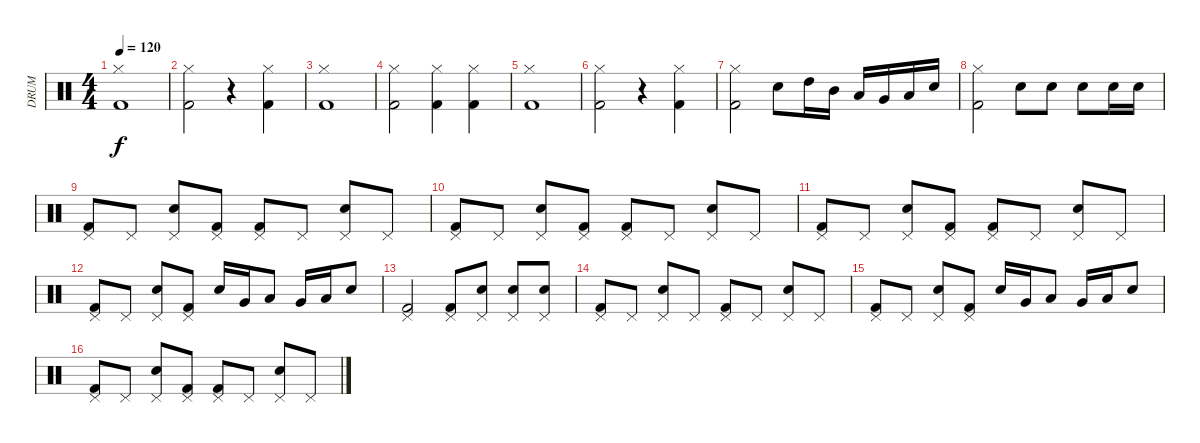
\track ("DRUM" "DRUM") {instrument percussion}
\staff {score}
\articulation defaults
\ts (4 4)
\tempo 120
\clef neutral
\ks c
("Kick (hit) 2" "Hi-Hat (closed)").1{dy f} |
("Kick (hit) 2" "Hi-Hat (closed)").2 r.4 ("Kick (hit) 2" "Hi-Hat (closed)").4 |
("Kick (hit) 2" "Hi-Hat (closed)").1 |
("Kick (hit) 2" "Hi-Hat (closed)").2 ("Kick (hit) 2" "Hi-Hat (closed)").4 ("Kick (hit) 2" "Hi-Hat (closed)").4 |
("Kick (hit) 2" "Hi-Hat (closed)").1 |
("Kick (hit) 2" "Hi-Hat (closed)").2 r.4 ("Kick (hit) 2" "Hi-Hat (closed)").4 |
("Kick (hit) 2" "Hi-Hat (closed)").2 "Electric Snare (hit)".8 "High Tom (hit)".16 "Mid Tom (hit)".16 "Low Tom (hit)".16 "Very Low Tom (hit)".16 "Low Floor Tom (hit)".16 "Electric Snare (hit)".16 |
("Kick (hit) 2" "Hi-Hat (closed)").2 "Electric Snare (hit)".8 "Electric Snare (hit)".8 "Electric Snare (hit)".8 "Electric Snare (hit)".16 "Electric Snare (hit)".16 |
("Kick (hit) 2" "Pedal Hi-Hat (hit)").8 "Pedal Hi-Hat (hit)".8 ("Electric Snare (hit)" "Pedal Hi-Hat (hit)").8 ("Kick (hit) 2" "Pedal Hi-Hat (hit)").8 ("Kick (hit) 2" "Pedal Hi-Hat (hit)").8 "Pedal Hi-Hat (hit)".8 ("Electric Snare (hit)" "Pedal Hi-Hat (hit)").8 "Pedal Hi-Hat (hit)".8 |
("Kick (hit) 2" "Pedal Hi-Hat (hit)").8 "Pedal Hi-Hat (hit)".8 ("Electric Snare (hit)" "Pedal Hi-Hat (hit)").8 ("Kick (hit) 2" "Pedal Hi-Hat (hit)").8 ("Kick (hit) 2" "Pedal Hi-Hat (hit)").8 "Pedal Hi-Hat (hit)".8 ("Electric Snare (hit)" "Pedal Hi-Hat (hit)").8 "Pedal Hi-Hat (hit)".8 |
("Kick (hit) 2" "Pedal Hi-Hat (hit)").8 "Pedal Hi-Hat (hit)".8 ("Electric Snare (hit)" "Pedal Hi-Hat (hit)").8 ("Kick (hit) 2" "Pedal Hi-Hat (hit)").8 ("Kick (hit) 2" "Pedal Hi-Hat (hit)").8 "Pedal Hi-Hat (hit)".8 ("Electric Snare (hit)" "Pedal Hi-Hat (hit)").8 "Pedal Hi-Hat (hit)".8 |
("Kick (hit) 2" "Pedal Hi-Hat (hit)").8 "Pedal Hi-Hat (hit)".8 ("Electric Snare (hit)" "Pedal Hi-Hat (hit)").8 ("Kick (hit) 2" "Pedal Hi-Hat (hit)").8 "Electric Snare (hit)".16 "Very Low Tom (hit)".16 "Low Tom (hit)".8 "Very Low Tom (hit)".16 "Low Tom (hit)".16 "Electric Snare (hit)".8 |
("Kick (hit) 2" "Pedal Hi-Hat (hit)").2 ("Kick (hit) 2" "Pedal Hi-Hat (hit)").8 ("Electric Snare (hit)" "Pedal Hi-Hat (hit)").8 ("Electric Snare (hit)" "Pedal Hi-Hat (hit)").8 ("Electric Snare (hit)" "Pedal Hi-Hat (hit)").8 |
("Kick (hit) 2" "Pedal Hi-Hat (hit)").8 "Pedal Hi-Hat (hit)".8 ("Electric Snare (hit)" "Pedal Hi-Hat (hit)").8 "Pedal Hi-Hat (hit)".8 ("Kick (hit) 2" "Pedal Hi-Hat (hit)").8 "Pedal Hi-Hat (hit)".8 ("Electric Snare (hit)" "Pedal Hi-Hat (hit)").8 "Pedal Hi-Hat (hit)".8 |
("Kick (hit) 2" "Pedal Hi-Hat (hit)").8 "Pedal Hi-Hat (hit)".8 ("Electric Snare (hit)" "Pedal Hi-Hat (hit)").8 ("Kick (hit) 2" "Pedal Hi-Hat (hit)").8 "Electric Snare (hit)".16 "Very Low Tom (hit)".16 "Low Tom (hit)".8 "Very Low Tom (hit)".16 "Low Tom (hit)".16 "Electric Snare (hit)".8 |
("Kick (hit) 2" "Pedal Hi-Hat (hit)").8 "Pedal Hi-Hat (hit)".8 ("Electric Snare (hit)" "Pedal Hi-Hat (hit)").8 ("Kick (hit) 2" "Pedal Hi-Hat (hit)").8 ("Kick (hit) 2" "Pedal Hi-Hat (hit)").8 "Pedal Hi-Hat (hit)".8 ("Electric Snare (hit)" "Pedal Hi-Hat (hit)").8 "Pedal Hi-Hat (hit)".8
